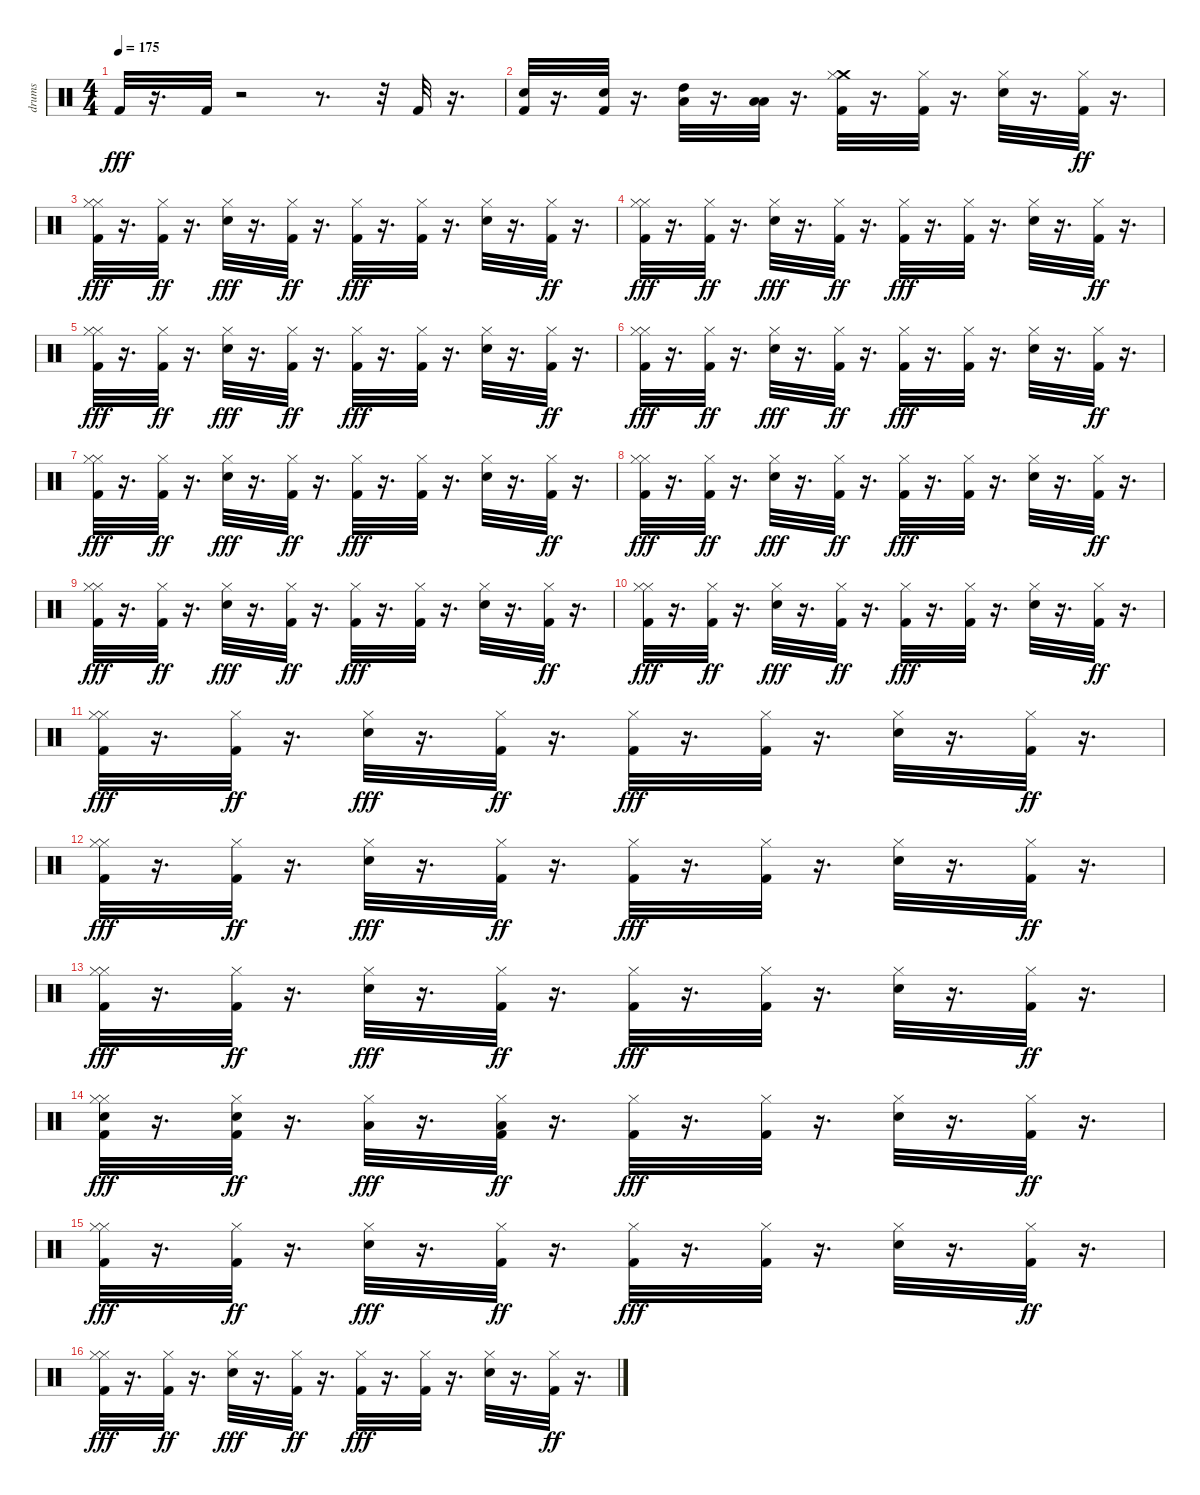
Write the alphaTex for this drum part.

\track ("drums" "drums") {instrument percussion}
\staff {score}
\articulation defaults
\ts (4 4)
\tempo 175
\clef neutral
\ks c "Kick (hit) 2".32{dy fff}
r.16{d} "Kick (hit) 2".32 r.2 r.8{d} r.32 "Kick (hit) 2".32 r.16{d} |
("Electric Snare (hit)" "Kick (hit) 2").32 r.16{d} ("Electric Snare (hit)" "Kick (hit) 2").32 r.16{d} ("Low Tom (hit)" "High Tom (hit)").32 r.16{d} ("Low Floor Tom (hit)" "Low Tom (hit)").32 r.16{d} ("Crash medium (hit)" "Hi-Hat (closed)" "Kick (hit) 2").32 r.16{d} ("Hi-Hat (closed)" "Kick (hit) 2").32 r.16{d} ("Hi-Hat (closed)" "Electric Snare (hit)").32 r.16{d} ("Hi-Hat (closed)" "Kick (hit) 2").32{dy ff} r.16{d} |
("Hi-Hat (closed)" "Hi-Hat (closed)" "Kick (hit) 2").32{dy fff} r.16{d} ("Hi-Hat (closed)" "Kick (hit) 2").32{dy ff} r.16{d} ("Hi-Hat (closed)" "Electric Snare (hit)").32{dy fff} r.16{d} ("Hi-Hat (closed)" "Kick (hit) 2").32{dy ff} r.16{d} ("Hi-Hat (closed)" "Kick (hit) 2").32{dy fff} r.16{d} ("Hi-Hat (closed)" "Kick (hit) 2").32 r.16{d} ("Hi-Hat (closed)" "Electric Snare (hit)").32 r.16{d} ("Hi-Hat (closed)" "Kick (hit) 2").32{dy ff} r.16{d} |
("Hi-Hat (closed)" "Hi-Hat (closed)" "Kick (hit) 2").32{dy fff} r.16{d} ("Hi-Hat (closed)" "Kick (hit) 2").32{dy ff} r.16{d} ("Hi-Hat (closed)" "Electric Snare (hit)").32{dy fff} r.16{d} ("Hi-Hat (closed)" "Kick (hit) 2").32{dy ff} r.16{d} ("Hi-Hat (closed)" "Kick (hit) 2").32{dy fff} r.16{d} ("Hi-Hat (closed)" "Kick (hit) 2").32 r.16{d} ("Hi-Hat (closed)" "Electric Snare (hit)").32 r.16{d} ("Hi-Hat (closed)" "Kick (hit) 2").32{dy ff} r.16{d} |
("Hi-Hat (closed)" "Hi-Hat (closed)" "Kick (hit) 2").32{dy fff} r.16{d} ("Hi-Hat (closed)" "Kick (hit) 2").32{dy ff} r.16{d} ("Hi-Hat (closed)" "Electric Snare (hit)").32{dy fff} r.16{d} ("Hi-Hat (closed)" "Kick (hit) 2").32{dy ff} r.16{d} ("Hi-Hat (closed)" "Kick (hit) 2").32{dy fff} r.16{d} ("Hi-Hat (closed)" "Kick (hit) 2").32 r.16{d} ("Hi-Hat (closed)" "Electric Snare (hit)").32 r.16{d} ("Hi-Hat (closed)" "Kick (hit) 2").32{dy ff} r.16{d} |
("Hi-Hat (closed)" "Hi-Hat (closed)" "Kick (hit) 2").32{dy fff} r.16{d} ("Hi-Hat (closed)" "Kick (hit) 2").32{dy ff} r.16{d} ("Hi-Hat (closed)" "Electric Snare (hit)").32{dy fff} r.16{d} ("Hi-Hat (closed)" "Kick (hit) 2").32{dy ff} r.16{d} ("Hi-Hat (closed)" "Kick (hit) 2").32{dy fff} r.16{d} ("Hi-Hat (closed)" "Kick (hit) 2").32 r.16{d} ("Hi-Hat (closed)" "Electric Snare (hit)").32 r.16{d} ("Hi-Hat (closed)" "Kick (hit) 2").32{dy ff} r.16{d} |
("Hi-Hat (closed)" "Hi-Hat (closed)" "Kick (hit) 2").32{dy fff} r.16{d} ("Hi-Hat (closed)" "Kick (hit) 2").32{dy ff} r.16{d} ("Hi-Hat (closed)" "Electric Snare (hit)").32{dy fff} r.16{d} ("Hi-Hat (closed)" "Kick (hit) 2").32{dy ff} r.16{d} ("Hi-Hat (closed)" "Kick (hit) 2").32{dy fff} r.16{d} ("Hi-Hat (closed)" "Kick (hit) 2").32 r.16{d} ("Hi-Hat (closed)" "Electric Snare (hit)").32 r.16{d} ("Hi-Hat (closed)" "Kick (hit) 2").32{dy ff} r.16{d} |
("Hi-Hat (closed)" "Hi-Hat (closed)" "Kick (hit) 2").32{dy fff} r.16{d} ("Hi-Hat (closed)" "Kick (hit) 2").32{dy ff} r.16{d} ("Hi-Hat (closed)" "Electric Snare (hit)").32{dy fff} r.16{d} ("Hi-Hat (closed)" "Kick (hit) 2").32{dy ff} r.16{d} ("Hi-Hat (closed)" "Kick (hit) 2").32{dy fff} r.16{d} ("Hi-Hat (closed)" "Kick (hit) 2").32 r.16{d} ("Hi-Hat (closed)" "Electric Snare (hit)").32 r.16{d} ("Hi-Hat (closed)" "Kick (hit) 2").32{dy ff} r.16{d} |
("Hi-Hat (closed)" "Hi-Hat (closed)" "Kick (hit) 2").32{dy fff} r.16{d} ("Hi-Hat (closed)" "Kick (hit) 2").32{dy ff} r.16{d} ("Hi-Hat (closed)" "Electric Snare (hit)").32{dy fff} r.16{d} ("Hi-Hat (closed)" "Kick (hit) 2").32{dy ff} r.16{d} ("Hi-Hat (closed)" "Kick (hit) 2").32{dy fff} r.16{d} ("Hi-Hat (closed)" "Kick (hit) 2").32 r.16{d} ("Hi-Hat (closed)" "Electric Snare (hit)").32 r.16{d} ("Hi-Hat (closed)" "Kick (hit) 2").32{dy ff} r.16{d} |
("Hi-Hat (closed)" "Hi-Hat (closed)" "Kick (hit) 2").32{dy fff} r.16{d} ("Hi-Hat (closed)" "Kick (hit) 2").32{dy ff} r.16{d} ("Hi-Hat (closed)" "Electric Snare (hit)").32{dy fff} r.16{d} ("Hi-Hat (closed)" "Kick (hit) 2").32{dy ff} r.16{d} ("Hi-Hat (closed)" "Kick (hit) 2").32{dy fff} r.16{d} ("Hi-Hat (closed)" "Kick (hit) 2").32 r.16{d} ("Hi-Hat (closed)" "Electric Snare (hit)").32 r.16{d} ("Hi-Hat (closed)" "Kick (hit) 2").32{dy ff} r.16{d} |
("Hi-Hat (closed)" "Hi-Hat (closed)" "Kick (hit) 2").32{dy fff} r.16{d} ("Hi-Hat (closed)" "Kick (hit) 2").32{dy ff} r.16{d} ("Hi-Hat (closed)" "Electric Snare (hit)").32{dy fff} r.16{d} ("Hi-Hat (closed)" "Kick (hit) 2").32{dy ff} r.16{d} ("Hi-Hat (closed)" "Kick (hit) 2").32{dy fff} r.16{d} ("Hi-Hat (closed)" "Kick (hit) 2").32 r.16{d} ("Hi-Hat (closed)" "Electric Snare (hit)").32 r.16{d} ("Hi-Hat (closed)" "Kick (hit) 2").32{dy ff} r.16{d} |
("Hi-Hat (closed)" "Hi-Hat (closed)" "Kick (hit) 2").32{dy fff} r.16{d} ("Hi-Hat (closed)" "Kick (hit) 2").32{dy ff} r.16{d} ("Hi-Hat (closed)" "Electric Snare (hit)").32{dy fff} r.16{d} ("Hi-Hat (closed)" "Kick (hit) 2").32{dy ff} r.16{d} ("Hi-Hat (closed)" "Kick (hit) 2").32{dy fff} r.16{d} ("Hi-Hat (closed)" "Kick (hit) 2").32 r.16{d} ("Hi-Hat (closed)" "Electric Snare (hit)").32 r.16{d} ("Hi-Hat (closed)" "Kick (hit) 2").32{dy ff} r.16{d} |
("Hi-Hat (closed)" "Hi-Hat (closed)" "Kick (hit) 2").32{dy fff} r.16{d} ("Hi-Hat (closed)" "Kick (hit) 2").32{dy ff} r.16{d} ("Hi-Hat (closed)" "Electric Snare (hit)").32{dy fff} r.16{d} ("Hi-Hat (closed)" "Kick (hit) 2").32{dy ff} r.16{d} ("Hi-Hat (closed)" "Kick (hit) 2").32{dy fff} r.16{d} ("Hi-Hat (closed)" "Kick (hit) 2").32 r.16{d} ("Hi-Hat (closed)" "Electric Snare (hit)").32 r.16{d} ("Hi-Hat (closed)" "Kick (hit) 2").32{dy ff} r.16{d} |
("Hi-Hat (closed)" "Hi-Hat (closed)" "Electric Snare (hit)" "Kick (hit) 2").32{dy fff} r.16{d} ("Hi-Hat (closed)" "Electric Snare (hit)" "Kick (hit) 2").32{dy ff} r.16{d} ("Hi-Hat (closed)" "Low Tom (hit)").32{dy fff} r.16{d} ("Hi-Hat (closed)" "Low Tom (hit)" "Kick (hit) 2").32{dy ff} r.16{d} ("Hi-Hat (closed)" "Kick (hit) 2").32{dy fff} r.16{d} ("Hi-Hat (closed)" "Kick (hit) 2").32 r.16{d} ("Hi-Hat (closed)" "Electric Snare (hit)").32 r.16{d} ("Hi-Hat (closed)" "Kick (hit) 2").32{dy ff} r.16{d} |
("Hi-Hat (closed)" "Hi-Hat (closed)" "Kick (hit) 2").32{dy fff} r.16{d} ("Hi-Hat (closed)" "Kick (hit) 2").32{dy ff} r.16{d} ("Hi-Hat (closed)" "Electric Snare (hit)").32{dy fff} r.16{d} ("Hi-Hat (closed)" "Kick (hit) 2").32{dy ff} r.16{d} ("Hi-Hat (closed)" "Kick (hit) 2").32{dy fff} r.16{d} ("Hi-Hat (closed)" "Kick (hit) 2").32 r.16{d} ("Hi-Hat (closed)" "Electric Snare (hit)").32 r.16{d} ("Hi-Hat (closed)" "Kick (hit) 2").32{dy ff} r.16{d} |
("Hi-Hat (closed)" "Hi-Hat (closed)" "Kick (hit) 2").32{dy fff} r.16{d} ("Hi-Hat (closed)" "Kick (hit) 2").32{dy ff} r.16{d} ("Hi-Hat (closed)" "Electric Snare (hit)").32{dy fff} r.16{d} ("Hi-Hat (closed)" "Kick (hit) 2").32{dy ff} r.16{d} ("Hi-Hat (closed)" "Kick (hit) 2").32{dy fff} r.16{d} ("Hi-Hat (closed)" "Kick (hit) 2").32 r.16{d} ("Hi-Hat (closed)" "Electric Snare (hit)").32 r.16{d} ("Hi-Hat (closed)" "Kick (hit) 2").32{dy ff} r.16{d}
